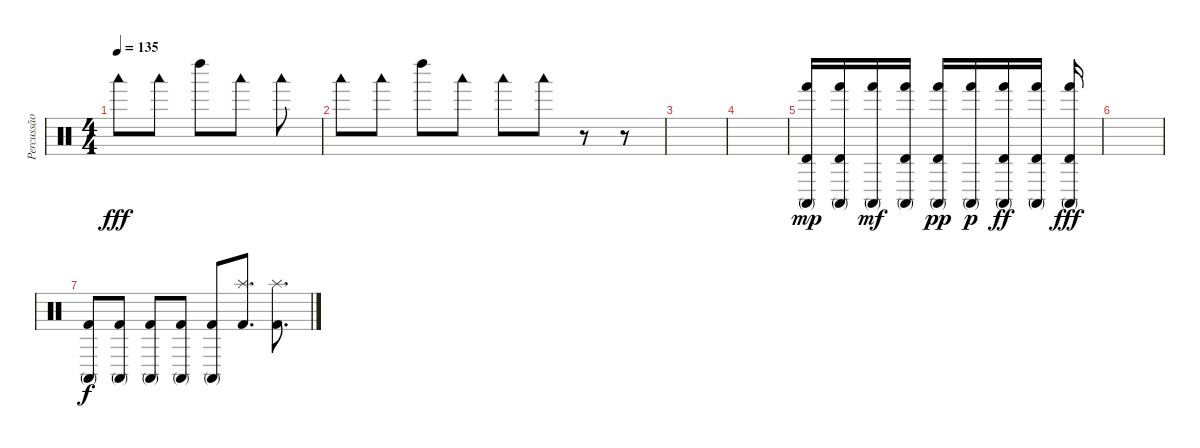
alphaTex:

\track ("Percussão" "Percussão") {instrument percussion}
\staff {score}
\articulation defaults
\ts (4 4)
\tempo 135
\clef neutral
\ks c "Woodblock low (hit)".8{dy fff} "Woodblock low (hit)".8 "Left Maraca (hit)".8 "Woodblock low (hit)".8 "Woodblock low (hit)".8
|
"Woodblock low (hit)".8 "Woodblock low (hit)".8 "Left Maraca (hit)".8 "Woodblock low (hit)".8 "Woodblock low (hit)".8 "Woodblock low (hit)".8 r.8 r.8 |
|
|
("Hand (hit)" "Timbale high (hit)" "Conga high (mute)").16{dy mp} ("Hand (hit)" "Timbale high (hit)" "Conga high (mute)").16 ("Hand (hit)" "Conga high (mute)").16{dy mf} ("Hand (hit)" "Timbale high (hit)" "Conga high (mute)").16 ("Hand (hit)" "Timbale high (hit)" "Conga high (mute)").16{dy pp} ("Hand (hit)" "Conga high (mute)").16{dy p} ("Hand (hit)" "Timbale high (hit)" "Conga high (mute)").16{dy ff} ("Hand (hit)" "Timbale high (hit)" "Conga high (mute)").16 ("Hand (hit)" "Timbale high (hit)" "Conga high (mute)").16{dy fff} |
|
("Kick (hit) 2" "Conga high (mute)").8{dy f} ("Kick (hit) 2" "Conga high (mute)").8 ("Kick (hit) 2" "Conga high (mute)").8 ("Kick (hit) 2" "Conga high (mute)").8 ("Kick (hit) 2" "Conga high (mute)").8 ("Kick (hit) 2" "Splash (hit)").8{d} ("Kick (hit) 2" "Splash (hit)").8{d}
